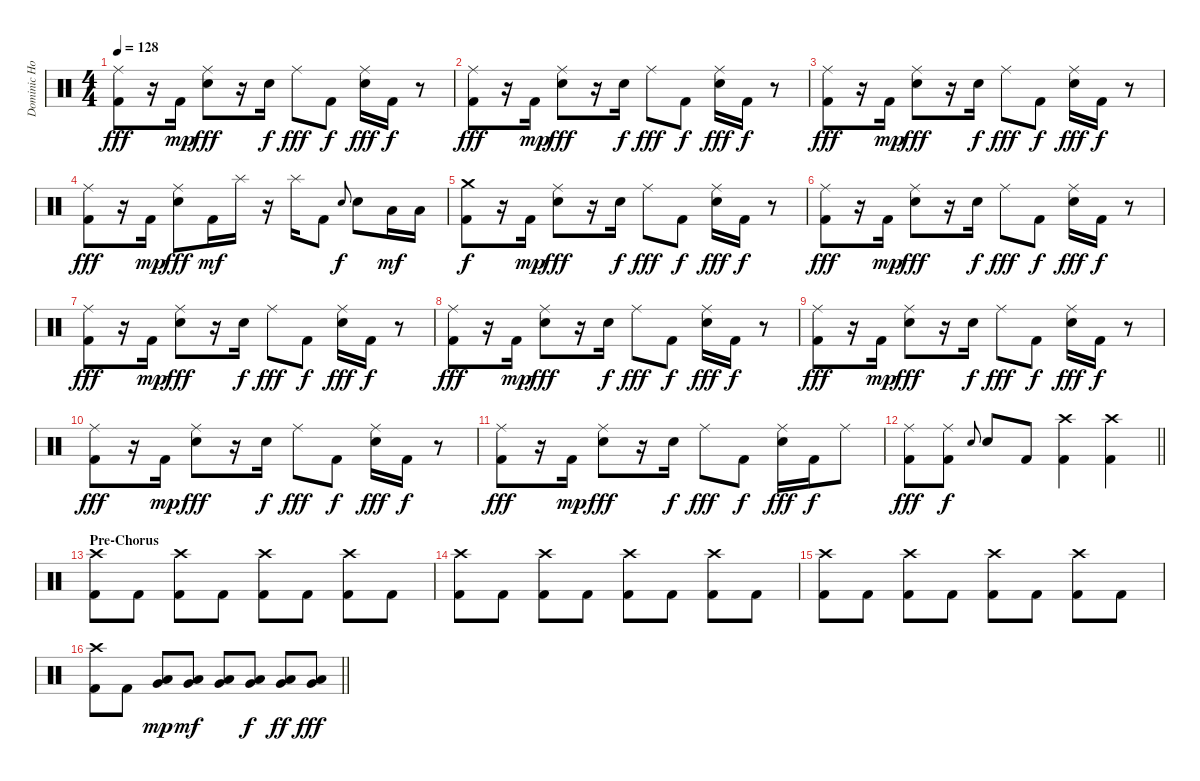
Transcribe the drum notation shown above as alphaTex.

\track ("Dominic Howard (Drums)" "Dominic Ho") {instrument percussion}
\staff {score}
\articulation defaults
\ts (4 4)
\tempo 128
\clef neutral
\ks c
("Ride (middle)" "Kick (hit) 2").8{dy fff} r.16 "Kick (hit) 2".16{dy mp} ("Ride (middle)" "Electric Snare (hit)").8{dy fff} r.16 "Electric Snare (hit)".16{dy f} "Ride (middle)".8{dy fff} "Kick (hit) 2".8{dy f} ("Ride (middle)" "Electric Snare (hit)").16{dy fff} "Kick (hit) 2".16{dy f} r.8 |
("Ride (middle)" "Kick (hit) 2").8{dy fff} r.16 "Kick (hit) 2".16{dy mp} ("Ride (middle)" "Electric Snare (hit)").8{dy fff} r.16 "Electric Snare (hit)".16{dy f} "Ride (middle)".8{dy fff} "Kick (hit) 2".8{dy f} ("Ride (middle)" "Electric Snare (hit)").16{dy fff} "Kick (hit) 2".16{dy f} r.8 |
("Ride (middle)" "Kick (hit) 2").8{dy fff} r.16 "Kick (hit) 2".16{dy mp} ("Ride (middle)" "Electric Snare (hit)").8{dy fff} r.16 "Electric Snare (hit)".16{dy f} "Ride (middle)".8{dy fff} "Kick (hit) 2".8{dy f} ("Ride (middle)" "Electric Snare (hit)").16{dy fff} "Kick (hit) 2".16{dy f} r.8 |
("Ride (middle)" "Kick (hit) 2").8{dy fff} r.16 "Kick (hit) 2".16{dy mp} ("Ride (middle)" "Electric Snare (hit)").8{dy fff} "Kick (hit) 2".16{dy mf} "Splash (hit)".16 r.16 "Splash (hit)".16 "Kick (hit) 2".8 "Electric Snare (hit)".8{gr onbeat dy f} "Electric Snare (hit)".8 "Low Tom (hit)".16{dy mf} "Low Tom (hit)".16 |
("Crash medium (hit)" "Kick (hit) 2").8{dy f} r.16 "Kick (hit) 2".16{dy mp} ("Ride (middle)" "Electric Snare (hit)").8{dy fff} r.16 "Electric Snare (hit)".16{dy f} "Ride (middle)".8{dy fff} "Kick (hit) 2".8{dy f} ("Ride (middle)" "Electric Snare (hit)").16{dy fff} "Kick (hit) 2".16{dy f} r.8 |
("Ride (middle)" "Kick (hit) 2").8{dy fff} r.16 "Kick (hit) 2".16{dy mp} ("Ride (middle)" "Electric Snare (hit)").8{dy fff} r.16 "Electric Snare (hit)".16{dy f} "Ride (middle)".8{dy fff} "Kick (hit) 2".8{dy f} ("Ride (middle)" "Electric Snare (hit)").16{dy fff} "Kick (hit) 2".16{dy f} r.8 |
("Ride (middle)" "Kick (hit) 2").8{dy fff} r.16 "Kick (hit) 2".16{dy mp} ("Ride (middle)" "Electric Snare (hit)").8{dy fff} r.16 "Electric Snare (hit)".16{dy f} "Ride (middle)".8{dy fff} "Kick (hit) 2".8{dy f} ("Ride (middle)" "Electric Snare (hit)").16{dy fff} "Kick (hit) 2".16{dy f} r.8 |
("Ride (middle)" "Kick (hit) 2").8{dy fff} r.16 "Kick (hit) 2".16{dy mp} ("Ride (middle)" "Electric Snare (hit)").8{dy fff} r.16 "Electric Snare (hit)".16{dy f} "Ride (middle)".8{dy fff} "Kick (hit) 2".8{dy f} ("Ride (middle)" "Electric Snare (hit)").16{dy fff} "Kick (hit) 2".16{dy f} r.8 |
("Ride (middle)" "Kick (hit) 2").8{dy fff} r.16 "Kick (hit) 2".16{dy mp} ("Ride (middle)" "Electric Snare (hit)").8{dy fff} r.16 "Electric Snare (hit)".16{dy f} "Ride (middle)".8{dy fff} "Kick (hit) 2".8{dy f} ("Ride (middle)" "Electric Snare (hit)").16{dy fff} "Kick (hit) 2".16{dy f} r.8 |
("Ride (middle)" "Kick (hit) 2").8{dy fff} r.16 "Kick (hit) 2".16{dy mp} ("Ride (middle)" "Electric Snare (hit)").8{dy fff} r.16 "Electric Snare (hit)".16{dy f} "Ride (middle)".8{dy fff} "Kick (hit) 2".8{dy f} ("Ride (middle)" "Electric Snare (hit)").16{dy fff} "Kick (hit) 2".16{dy f} r.8 |
("Ride (middle)" "Kick (hit) 2").8{dy fff} r.16 "Kick (hit) 2".16{dy mp} ("Ride (middle)" "Electric Snare (hit)").8{dy fff} r.16 "Electric Snare (hit)".16{dy f} "Ride (middle)".8{dy fff} "Kick (hit) 2".8{dy f} ("Ride (middle)" "Electric Snare (hit)").16{dy fff} "Kick (hit) 2".16{dy f} "Ride (middle)".8 |
\barLineRight lightlight
("Ride (middle)" "Kick (hit) 2").8{dy fff} ("Ride (middle)" "Kick (hit) 2").8{dy f} "Electric Snare (hit)".8{gr onbeat} "Electric Snare (hit)".8 "Kick (hit) 2".8 ("Crash high (hit)" "Kick (hit) 2").4 ("Crash high (hit)" "Kick (hit) 2").4 |
\section ("" "Pre-Chorus")
("Crash high (hit)" "Kick (hit) 2").8 "Kick (hit) 2".8 ("Crash high (hit)" "Kick (hit) 2").8 "Kick (hit) 2".8 ("Crash high (hit)" "Kick (hit) 2").8 "Kick (hit) 2".8 ("Crash high (hit)" "Kick (hit) 2").8 "Kick (hit) 2".8 |
("Crash high (hit)" "Kick (hit) 2").8 "Kick (hit) 2".8 ("Crash high (hit)" "Kick (hit) 2").8 "Kick (hit) 2".8 ("Crash high (hit)" "Kick (hit) 2").8 "Kick (hit) 2".8 ("Crash high (hit)" "Kick (hit) 2").8 "Kick (hit) 2".8 |
("Crash high (hit)" "Kick (hit) 2").8 "Kick (hit) 2".8 ("Crash high (hit)" "Kick (hit) 2").8 "Kick (hit) 2".8 ("Crash high (hit)" "Kick (hit) 2").8 "Kick (hit) 2".8 ("Crash high (hit)" "Kick (hit) 2").8 "Kick (hit) 2".8 |
\barLineRight lightlight
("Crash high (hit)" "Kick (hit) 2").8 "Kick (hit) 2".8 ("Very Low Tom (hit)" "Low Floor Tom (hit)").8{dy mp} ("Very Low Tom (hit)" "Low Floor Tom (hit)").8{dy mf} ("Very Low Tom (hit)" "Low Floor Tom (hit)").8 ("Very Low Tom (hit)" "Low Floor Tom (hit)").8{dy f} ("Very Low Tom (hit)" "Low Floor Tom (hit)").8{dy ff} ("Very Low Tom (hit)" "Low Floor Tom (hit)").8{dy fff}
